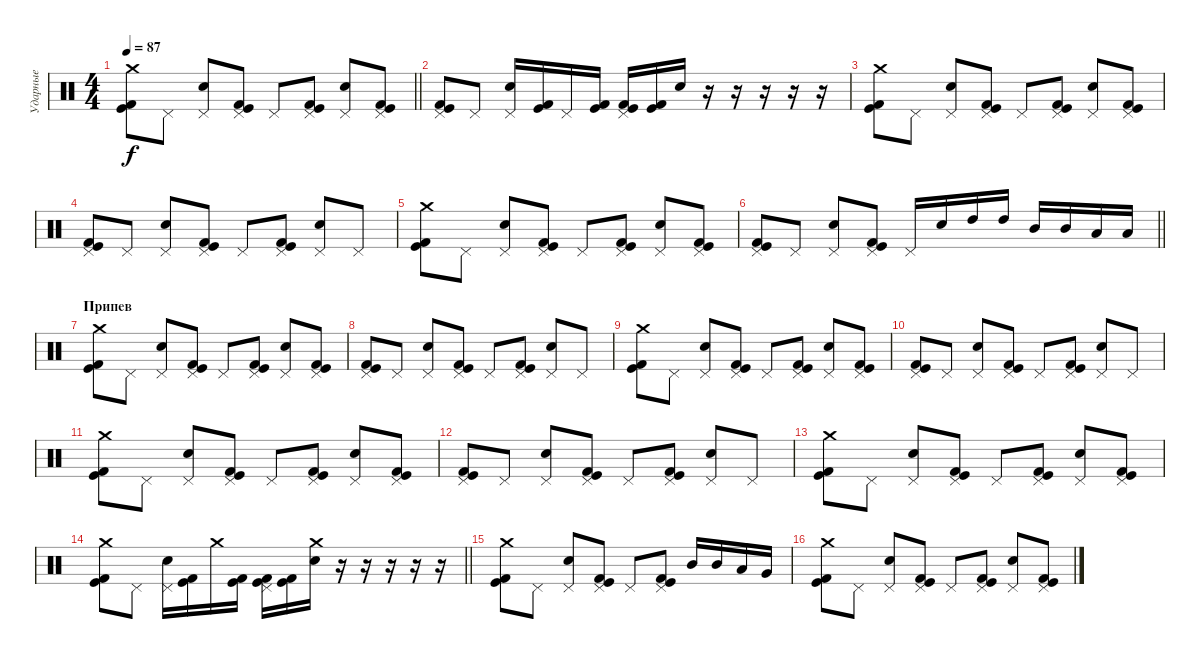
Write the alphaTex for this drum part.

\track ("Ударные" "Ударные") {instrument percussion}
\staff {score}
\articulation defaults
\ts (4 4)
\tempo 87
\clef neutral
\barLineRight lightlight
\ks c
("Crash medium (hit)" "Kick (hit)" "Kick (hit) 2").8{dy f} "Pedal Hi-Hat (hit)".8 ("Pedal Hi-Hat (hit)" "Electric Snare (hit)").8 ("Pedal Hi-Hat (hit)" "Kick (hit)" "Kick (hit) 2").8 "Pedal Hi-Hat (hit)".8 ("Pedal Hi-Hat (hit)" "Kick (hit)" "Kick (hit) 2").8 ("Pedal Hi-Hat (hit)" "Electric Snare (hit)").8 ("Pedal Hi-Hat (hit)" "Kick (hit)" "Kick (hit) 2").8 |
("Pedal Hi-Hat (hit)" "Kick (hit)" "Kick (hit) 2").8 "Pedal Hi-Hat (hit)".8 ("Pedal Hi-Hat (hit)" "Electric Snare (hit)").16 ("Kick (hit)" "Kick (hit) 2").16 "Pedal Hi-Hat (hit)".16 ("Kick (hit)" "Kick (hit) 2").16 ("Pedal Hi-Hat (hit)" "Kick (hit)" "Kick (hit) 2").16 ("Kick (hit)" "Kick (hit) 2").16 "Electric Snare (hit)".16 r.16 r.16 r.16 r.16 r.16 |
("Crash medium (hit)" "Kick (hit)" "Kick (hit) 2").8 "Pedal Hi-Hat (hit)".8 ("Pedal Hi-Hat (hit)" "Electric Snare (hit)").8 ("Pedal Hi-Hat (hit)" "Kick (hit)" "Kick (hit) 2").8 "Pedal Hi-Hat (hit)".8 ("Pedal Hi-Hat (hit)" "Kick (hit)" "Kick (hit) 2").8 ("Pedal Hi-Hat (hit)" "Electric Snare (hit)").8 ("Pedal Hi-Hat (hit)" "Kick (hit)" "Kick (hit) 2").8 |
("Pedal Hi-Hat (hit)" "Kick (hit)" "Kick (hit) 2").8 "Pedal Hi-Hat (hit)".8 ("Pedal Hi-Hat (hit)" "Electric Snare (hit)").8 ("Pedal Hi-Hat (hit)" "Kick (hit)" "Kick (hit) 2").8 "Pedal Hi-Hat (hit)".8 ("Pedal Hi-Hat (hit)" "Kick (hit)" "Kick (hit) 2").8 ("Pedal Hi-Hat (hit)" "Electric Snare (hit)").8 "Pedal Hi-Hat (hit)".8 |
("Crash medium (hit)" "Kick (hit)" "Kick (hit) 2").8 "Pedal Hi-Hat (hit)".8 ("Pedal Hi-Hat (hit)" "Electric Snare (hit)").8 ("Pedal Hi-Hat (hit)" "Kick (hit)" "Kick (hit) 2").8 "Pedal Hi-Hat (hit)".8 ("Pedal Hi-Hat (hit)" "Kick (hit)" "Kick (hit) 2").8 ("Pedal Hi-Hat (hit)" "Electric Snare (hit)").8 ("Pedal Hi-Hat (hit)" "Kick (hit)" "Kick (hit) 2").8 |
\barLineRight lightlight
("Pedal Hi-Hat (hit)" "Kick (hit)" "Kick (hit) 2").8 "Pedal Hi-Hat (hit)".8 ("Pedal Hi-Hat (hit)" "Electric Snare (hit)").8 ("Pedal Hi-Hat (hit)" "Kick (hit)" "Kick (hit) 2").8 "Pedal Hi-Hat (hit)".16 "Electric Snare (hit)".16 "High Tom (hit)".16 "High Tom (hit)".16 "Mid Tom (hit)".16 "Mid Tom (hit)".16 "Low Tom (hit)".16 "Low Tom (hit)".16 |
\section ("" "Припев")
("Crash medium (hit)" "Kick (hit)" "Kick (hit) 2").8 "Pedal Hi-Hat (hit)".8 ("Pedal Hi-Hat (hit)" "Electric Snare (hit)").8 ("Pedal Hi-Hat (hit)" "Kick (hit)" "Kick (hit) 2").8 "Pedal Hi-Hat (hit)".8 ("Pedal Hi-Hat (hit)" "Kick (hit)" "Kick (hit) 2").8 ("Pedal Hi-Hat (hit)" "Electric Snare (hit)").8 ("Pedal Hi-Hat (hit)" "Kick (hit)" "Kick (hit) 2").8 |
("Pedal Hi-Hat (hit)" "Kick (hit)" "Kick (hit) 2").8 "Pedal Hi-Hat (hit)".8 ("Pedal Hi-Hat (hit)" "Electric Snare (hit)").8 ("Pedal Hi-Hat (hit)" "Kick (hit)" "Kick (hit) 2").8 "Pedal Hi-Hat (hit)".8 ("Pedal Hi-Hat (hit)" "Kick (hit)" "Kick (hit) 2").8 ("Pedal Hi-Hat (hit)" "Electric Snare (hit)").8 "Pedal Hi-Hat (hit)".8 |
("Crash medium (hit)" "Kick (hit)" "Kick (hit) 2").8 "Pedal Hi-Hat (hit)".8 ("Pedal Hi-Hat (hit)" "Electric Snare (hit)").8 ("Pedal Hi-Hat (hit)" "Kick (hit)" "Kick (hit) 2").8 "Pedal Hi-Hat (hit)".8 ("Pedal Hi-Hat (hit)" "Kick (hit)" "Kick (hit) 2").8 ("Pedal Hi-Hat (hit)" "Electric Snare (hit)").8 ("Pedal Hi-Hat (hit)" "Kick (hit)" "Kick (hit) 2").8 |
("Pedal Hi-Hat (hit)" "Kick (hit)" "Kick (hit) 2").8 "Pedal Hi-Hat (hit)".8 ("Pedal Hi-Hat (hit)" "Electric Snare (hit)").8 ("Pedal Hi-Hat (hit)" "Kick (hit)" "Kick (hit) 2").8 "Pedal Hi-Hat (hit)".8 ("Pedal Hi-Hat (hit)" "Kick (hit)" "Kick (hit) 2").8 ("Pedal Hi-Hat (hit)" "Electric Snare (hit)").8 "Pedal Hi-Hat (hit)".8 |
("Crash medium (hit)" "Kick (hit)" "Kick (hit) 2").8 "Pedal Hi-Hat (hit)".8 ("Pedal Hi-Hat (hit)" "Electric Snare (hit)").8 ("Pedal Hi-Hat (hit)" "Kick (hit)" "Kick (hit) 2").8 "Pedal Hi-Hat (hit)".8 ("Pedal Hi-Hat (hit)" "Kick (hit)" "Kick (hit) 2").8 ("Pedal Hi-Hat (hit)" "Electric Snare (hit)").8 ("Pedal Hi-Hat (hit)" "Kick (hit)" "Kick (hit) 2").8 |
("Pedal Hi-Hat (hit)" "Kick (hit)" "Kick (hit) 2").8 "Pedal Hi-Hat (hit)".8 ("Pedal Hi-Hat (hit)" "Electric Snare (hit)").8 ("Pedal Hi-Hat (hit)" "Kick (hit)" "Kick (hit) 2").8 "Pedal Hi-Hat (hit)".8 ("Pedal Hi-Hat (hit)" "Kick (hit)" "Kick (hit) 2").8 ("Pedal Hi-Hat (hit)" "Electric Snare (hit)").8 "Pedal Hi-Hat (hit)".8 |
("Crash medium (hit)" "Kick (hit)" "Kick (hit) 2").8 "Pedal Hi-Hat (hit)".8 ("Pedal Hi-Hat (hit)" "Electric Snare (hit)").8 ("Pedal Hi-Hat (hit)" "Kick (hit)" "Kick (hit) 2").8 "Pedal Hi-Hat (hit)".8 ("Pedal Hi-Hat (hit)" "Kick (hit)" "Kick (hit) 2").8 ("Pedal Hi-Hat (hit)" "Electric Snare (hit)").8 ("Pedal Hi-Hat (hit)" "Kick (hit)" "Kick (hit) 2").8 |
\barLineRight lightlight
("Crash medium (hit)" "Kick (hit)" "Kick (hit) 2").8 "Pedal Hi-Hat (hit)".8 ("Pedal Hi-Hat (hit)" "Electric Snare (hit)").16 ("Kick (hit)" "Kick (hit) 2").16 "Crash medium (hit)".16 ("Kick (hit)" "Kick (hit) 2").16 ("Pedal Hi-Hat (hit)" "Kick (hit)" "Kick (hit) 2").16 ("Kick (hit)" "Kick (hit) 2").16 ("Crash medium (hit)" "Electric Snare (hit)").16 r.16 r.16 r.16 r.16 r.16 |
("Crash medium (hit)" "Kick (hit)" "Kick (hit) 2").8 "Pedal Hi-Hat (hit)".8 ("Pedal Hi-Hat (hit)" "Electric Snare (hit)").8 ("Pedal Hi-Hat (hit)" "Kick (hit)" "Kick (hit) 2").8 "Pedal Hi-Hat (hit)".8 ("Pedal Hi-Hat (hit)" "Kick (hit)" "Kick (hit) 2").8 "Mid Tom (hit)".16 "Mid Tom (hit)".16 "Low Tom (hit)".16 "Very Low Tom (hit)".16 |
("Crash medium (hit)" "Kick (hit)" "Kick (hit) 2").8 "Pedal Hi-Hat (hit)".8 ("Pedal Hi-Hat (hit)" "Electric Snare (hit)").8 ("Pedal Hi-Hat (hit)" "Kick (hit)" "Kick (hit) 2").8 "Pedal Hi-Hat (hit)".8 ("Pedal Hi-Hat (hit)" "Kick (hit)" "Kick (hit) 2").8 ("Pedal Hi-Hat (hit)" "Electric Snare (hit)").8 ("Pedal Hi-Hat (hit)" "Kick (hit)" "Kick (hit) 2").8
